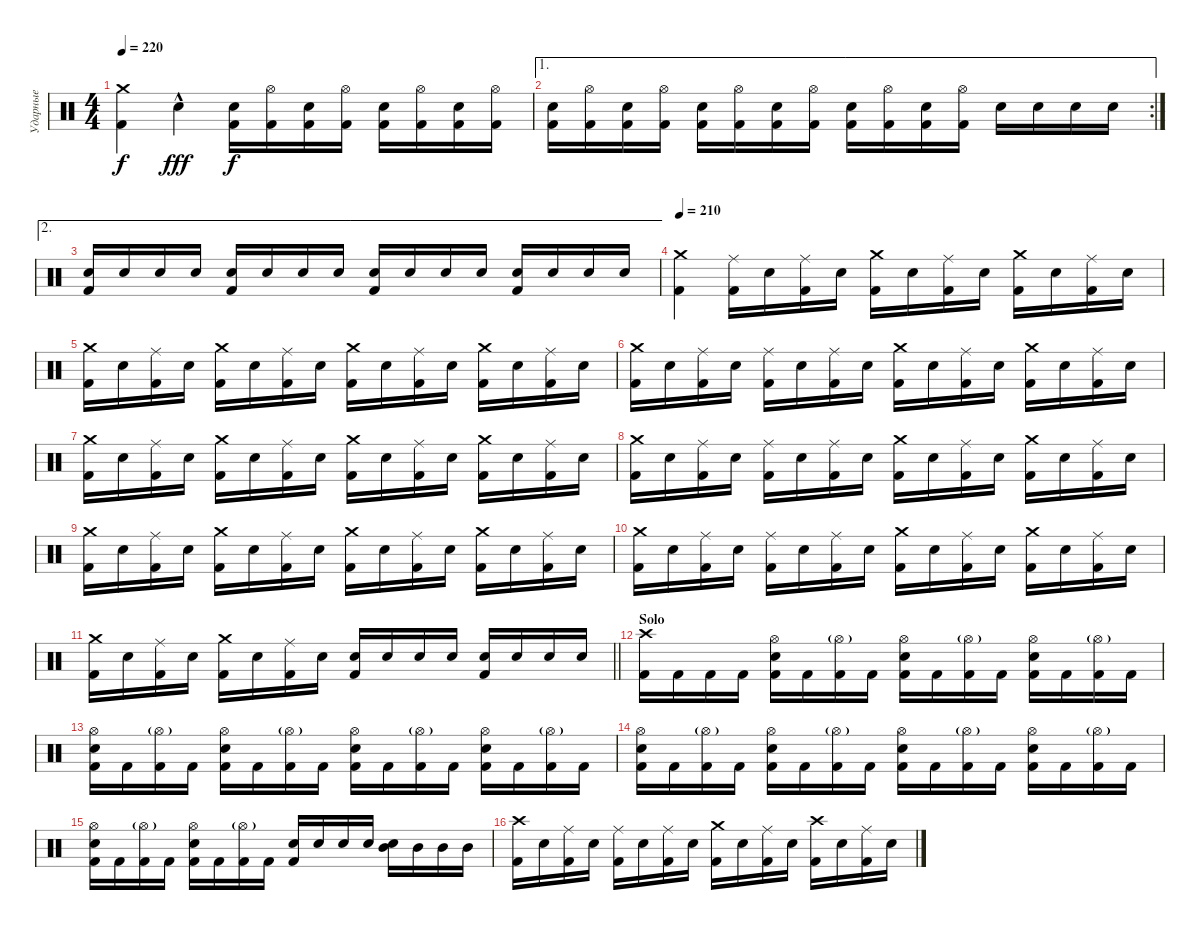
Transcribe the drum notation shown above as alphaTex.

\track ("Ударные" "Ударные") {instrument percussion}
\staff {score}
\articulation defaults
\ts (4 4)
\tempo 220
\clef neutral
\ks c
("Crash medium (hit)" "Kick (hit) 2").4{dy f} "Electric Snare (hit)"{hac}.4{dy fff} ("Electric Snare (hit)" "Kick (hit) 2").16{dy f} ("Hi-Hat (open)" "Kick (hit) 2").16 ("Electric Snare (hit)" "Kick (hit) 2").16 ("Hi-Hat (open)" "Kick (hit) 2").16 ("Electric Snare (hit)" "Kick (hit) 2").16 ("Hi-Hat (open)" "Kick (hit) 2").16 ("Electric Snare (hit)" "Kick (hit) 2").16 ("Hi-Hat (open)" "Kick (hit) 2").16 |
\ae 1
\rc 2
("Electric Snare (hit)" "Kick (hit) 2").16 ("Hi-Hat (open)" "Kick (hit) 2").16 ("Electric Snare (hit)" "Kick (hit) 2").16 ("Hi-Hat (open)" "Kick (hit) 2").16 ("Electric Snare (hit)" "Kick (hit) 2").16 ("Hi-Hat (open)" "Kick (hit) 2").16 ("Electric Snare (hit)" "Kick (hit) 2").16 ("Hi-Hat (open)" "Kick (hit) 2").16 ("Electric Snare (hit)" "Kick (hit) 2").16 ("Hi-Hat (open)" "Kick (hit) 2").16 ("Electric Snare (hit)" "Kick (hit) 2").16 ("Hi-Hat (open)" "Kick (hit) 2").16 "Electric Snare (hit)".16 "Electric Snare (hit)".16 "Electric Snare (hit)".16 "Electric Snare (hit)".16 |
\ae 2
("Electric Snare (hit)" "Kick (hit) 2").16 "Electric Snare (hit)".16 "Electric Snare (hit)".16 "Electric Snare (hit)".16 ("Electric Snare (hit)" "Kick (hit) 2").16 "Electric Snare (hit)".16 "Electric Snare (hit)".16 "Electric Snare (hit)".16 ("Electric Snare (hit)" "Kick (hit) 2").16 "Electric Snare (hit)".16 "Electric Snare (hit)".16 "Electric Snare (hit)".16 ("Electric Snare (hit)" "Kick (hit) 2").16 "Electric Snare (hit)".16 "Electric Snare (hit)".16 "Electric Snare (hit)".16 |
\tempo 210
("Crash medium (hit)" "Kick (hit) 2").4 ("Ride (middle)" "Kick (hit) 2").16 "Electric Snare (hit)".16 ("Ride (middle)" "Kick (hit) 2").16 "Electric Snare (hit)".16 ("Crash medium (hit)" "Kick (hit) 2").16 "Electric Snare (hit)".16 ("Ride (middle)" "Kick (hit) 2").16 "Electric Snare (hit)".16 ("Crash medium (hit)" "Kick (hit) 2").16 "Electric Snare (hit)".16 ("Ride (middle)" "Kick (hit) 2").16 "Electric Snare (hit)".16 |
("Crash medium (hit)" "Kick (hit) 2").16 "Electric Snare (hit)".16 ("Ride (middle)" "Kick (hit) 2").16 "Electric Snare (hit)".16 ("Crash medium (hit)" "Kick (hit) 2").16 "Electric Snare (hit)".16 ("Ride (middle)" "Kick (hit) 2").16 "Electric Snare (hit)".16 ("Crash medium (hit)" "Kick (hit) 2").16 "Electric Snare (hit)".16 ("Ride (middle)" "Kick (hit) 2").16 "Electric Snare (hit)".16 ("Crash medium (hit)" "Kick (hit) 2").16 "Electric Snare (hit)".16 ("Ride (middle)" "Kick (hit) 2").16 "Electric Snare (hit)".16 |
("Crash medium (hit)" "Kick (hit) 2").16 "Electric Snare (hit)".16 ("Ride (middle)" "Kick (hit) 2").16 "Electric Snare (hit)".16 ("Ride (middle)" "Kick (hit) 2").16 "Electric Snare (hit)".16 ("Ride (middle)" "Kick (hit) 2").16 "Electric Snare (hit)".16 ("Crash medium (hit)" "Kick (hit) 2").16 "Electric Snare (hit)".16 ("Ride (middle)" "Kick (hit) 2").16 "Electric Snare (hit)".16 ("Crash medium (hit)" "Kick (hit) 2").16 "Electric Snare (hit)".16 ("Ride (middle)" "Kick (hit) 2").16 "Electric Snare (hit)".16 |
("Crash medium (hit)" "Kick (hit) 2").16 "Electric Snare (hit)".16 ("Ride (middle)" "Kick (hit) 2").16 "Electric Snare (hit)".16 ("Crash medium (hit)" "Kick (hit) 2").16 "Electric Snare (hit)".16 ("Ride (middle)" "Kick (hit) 2").16 "Electric Snare (hit)".16 ("Crash medium (hit)" "Kick (hit) 2").16 "Electric Snare (hit)".16 ("Ride (middle)" "Kick (hit) 2").16 "Electric Snare (hit)".16 ("Crash medium (hit)" "Kick (hit) 2").16 "Electric Snare (hit)".16 ("Ride (middle)" "Kick (hit) 2").16 "Electric Snare (hit)".16 |
("Crash medium (hit)" "Kick (hit) 2").16 "Electric Snare (hit)".16 ("Ride (middle)" "Kick (hit) 2").16 "Electric Snare (hit)".16 ("Ride (middle)" "Kick (hit) 2").16 "Electric Snare (hit)".16 ("Ride (middle)" "Kick (hit) 2").16 "Electric Snare (hit)".16 ("Crash medium (hit)" "Kick (hit) 2").16 "Electric Snare (hit)".16 ("Ride (middle)" "Kick (hit) 2").16 "Electric Snare (hit)".16 ("Crash medium (hit)" "Kick (hit) 2").16 "Electric Snare (hit)".16 ("Ride (middle)" "Kick (hit) 2").16 "Electric Snare (hit)".16 |
("Crash medium (hit)" "Kick (hit) 2").16 "Electric Snare (hit)".16 ("Ride (middle)" "Kick (hit) 2").16 "Electric Snare (hit)".16 ("Crash medium (hit)" "Kick (hit) 2").16 "Electric Snare (hit)".16 ("Ride (middle)" "Kick (hit) 2").16 "Electric Snare (hit)".16 ("Crash medium (hit)" "Kick (hit) 2").16 "Electric Snare (hit)".16 ("Ride (middle)" "Kick (hit) 2").16 "Electric Snare (hit)".16 ("Crash medium (hit)" "Kick (hit) 2").16 "Electric Snare (hit)".16 ("Ride (middle)" "Kick (hit) 2").16 "Electric Snare (hit)".16 |
("Crash medium (hit)" "Kick (hit) 2").16 "Electric Snare (hit)".16 ("Ride (middle)" "Kick (hit) 2").16 "Electric Snare (hit)".16 ("Ride (middle)" "Kick (hit) 2").16 "Electric Snare (hit)".16 ("Ride (middle)" "Kick (hit) 2").16 "Electric Snare (hit)".16 ("Crash medium (hit)" "Kick (hit) 2").16 "Electric Snare (hit)".16 ("Ride (middle)" "Kick (hit) 2").16 "Electric Snare (hit)".16 ("Crash medium (hit)" "Kick (hit) 2").16 "Electric Snare (hit)".16 ("Ride (middle)" "Kick (hit) 2").16 "Electric Snare (hit)".16 |
\barLineRight lightlight
("Crash medium (hit)" "Kick (hit) 2").16 "Electric Snare (hit)".16 ("Ride (middle)" "Kick (hit) 2").16 "Electric Snare (hit)".16 ("Crash medium (hit)" "Kick (hit) 2").16 "Electric Snare (hit)".16 ("Ride (middle)" "Kick (hit) 2").16 "Electric Snare (hit)".16 ("Electric Snare (hit)" "Kick (hit) 2").16 "Electric Snare (hit)".16 "Electric Snare (hit)".16 "Electric Snare (hit)".16 ("Electric Snare (hit)" "Kick (hit) 2").16 "Electric Snare (hit)".16 "Electric Snare (hit)".16 "Electric Snare (hit)".16 |
\section ("" "Solo")
("Crash high (hit)" "Kick (hit) 2").16 "Kick (hit) 2".16 "Kick (hit) 2".16 "Kick (hit) 2".16 ("Hi-Hat (open)" "Electric Snare (hit)" "Kick (hit) 2").16 "Kick (hit) 2".16 ("Hi-Hat (open)"{g} "Kick (hit) 2").16 "Kick (hit) 2".16 ("Hi-Hat (open)" "Electric Snare (hit)" "Kick (hit) 2").16 "Kick (hit) 2".16 ("Hi-Hat (open)"{g} "Kick (hit) 2").16 "Kick (hit) 2".16 ("Hi-Hat (open)" "Electric Snare (hit)" "Kick (hit) 2").16 "Kick (hit) 2".16 ("Hi-Hat (open)"{g} "Kick (hit) 2").16 "Kick (hit) 2".16 |
("Hi-Hat (open)" "Electric Snare (hit)" "Kick (hit) 2").16 "Kick (hit) 2".16 ("Hi-Hat (open)"{g} "Kick (hit) 2").16 "Kick (hit) 2".16 ("Hi-Hat (open)" "Electric Snare (hit)" "Kick (hit) 2").16 "Kick (hit) 2".16 ("Hi-Hat (open)"{g} "Kick (hit) 2").16 "Kick (hit) 2".16 ("Hi-Hat (open)" "Electric Snare (hit)" "Kick (hit) 2").16 "Kick (hit) 2".16 ("Hi-Hat (open)"{g} "Kick (hit) 2").16 "Kick (hit) 2".16 ("Hi-Hat (open)" "Electric Snare (hit)" "Kick (hit) 2").16 "Kick (hit) 2".16 ("Hi-Hat (open)"{g} "Kick (hit) 2").16 "Kick (hit) 2".16 |
("Hi-Hat (open)" "Electric Snare (hit)" "Kick (hit) 2").16 "Kick (hit) 2".16 ("Hi-Hat (open)"{g} "Kick (hit) 2").16 "Kick (hit) 2".16 ("Hi-Hat (open)" "Electric Snare (hit)" "Kick (hit) 2").16 "Kick (hit) 2".16 ("Hi-Hat (open)"{g} "Kick (hit) 2").16 "Kick (hit) 2".16 ("Hi-Hat (open)" "Electric Snare (hit)" "Kick (hit) 2").16 "Kick (hit) 2".16 ("Hi-Hat (open)"{g} "Kick (hit) 2").16 "Kick (hit) 2".16 ("Hi-Hat (open)" "Electric Snare (hit)" "Kick (hit) 2").16 "Kick (hit) 2".16 ("Hi-Hat (open)"{g} "Kick (hit) 2").16 "Kick (hit) 2".16 |
("Hi-Hat (open)" "Electric Snare (hit)" "Kick (hit) 2").16 "Kick (hit) 2".16 ("Hi-Hat (open)"{g} "Kick (hit) 2").16 "Kick (hit) 2".16 ("Hi-Hat (open)" "Electric Snare (hit)" "Kick (hit) 2").16 "Kick (hit) 2".16 ("Hi-Hat (open)"{g} "Kick (hit) 2").16 "Kick (hit) 2".16 ("Electric Snare (hit)" "Kick (hit) 2").16 "Electric Snare (hit)".16 "Electric Snare (hit)".16 "Electric Snare (hit)".16 ("Mid Tom (hit)" "Electric Snare (hit)").16 "Mid Tom (hit)".16 "Mid Tom (hit)".16 "Mid Tom (hit)".16 |
("Crash high (hit)" "Kick (hit) 2").16 "Electric Snare (hit)".16 ("Ride (middle)" "Kick (hit) 2").16 "Electric Snare (hit)".16 ("Ride (middle)" "Kick (hit) 2").16 "Electric Snare (hit)".16 ("Ride (middle)" "Kick (hit) 2").16 "Electric Snare (hit)".16 ("Crash medium (hit)" "Kick (hit) 2").16 "Electric Snare (hit)".16 ("Ride (middle)" "Kick (hit) 2").16 "Electric Snare (hit)".16 ("Crash high (hit)" "Kick (hit) 2").16 "Electric Snare (hit)".16 ("Ride (middle)" "Kick (hit) 2").16 "Electric Snare (hit)".16
